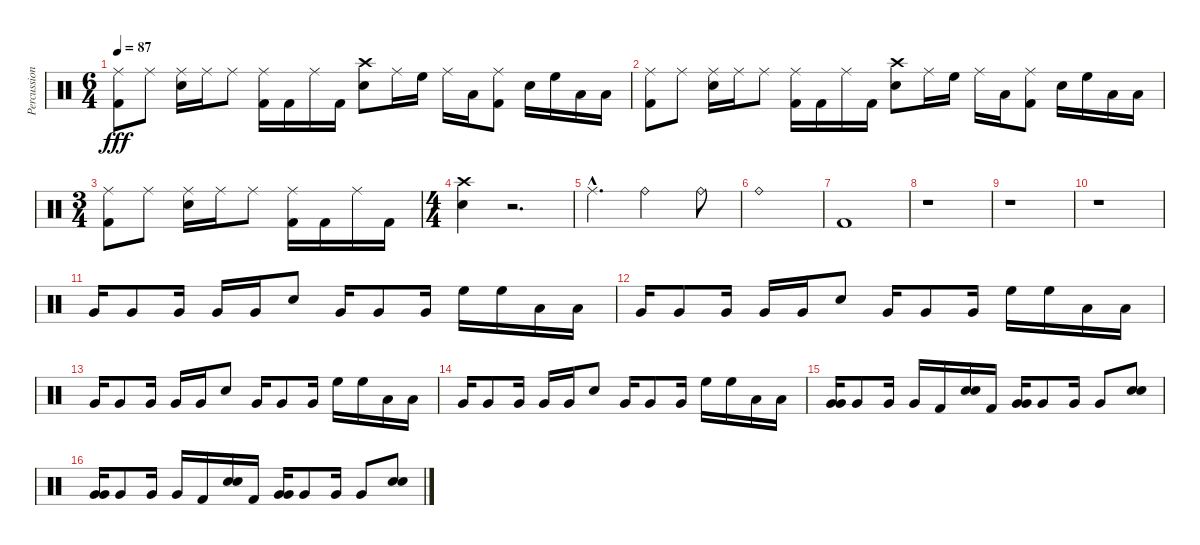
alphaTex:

\track ("Percussions" "Percussion") {instrument percussion}
\staff {score}
\articulation defaults
\ts (6 4)
\tempo 87
\clef neutral
\ks c
("Ride (middle)" "Kick (hit) 2").8{dy fff} "Ride (middle)".8 ("Electric Snare (hit)" "Ride (middle)").16 "Ride (middle)".16 "Ride (middle)".8 ("Ride (middle)" "Kick (hit) 2").16 "Kick (hit) 2".16 "Ride (middle)".16 "Kick (hit) 2".16 ("Electric Snare (hit)" "Crash high (hit)").8 "Ride (middle)".16 "High Floor Tom (hit)".16 "Ride (middle)".16 "Low Tom (hit)".16 ("Ride (middle)" "Kick (hit) 2").8 "Electric Snare (hit)".16 "High Floor Tom (hit)".16 "Low Tom (hit)".16 "Low Tom (hit)".16 |
("Ride (middle)" "Kick (hit) 2").8 "Ride (middle)".8 ("Electric Snare (hit)" "Ride (middle)").16 "Ride (middle)".16 "Ride (middle)".8 ("Ride (middle)" "Kick (hit) 2").16 "Kick (hit) 2".16 "Ride (middle)".16 "Kick (hit) 2".16 ("Electric Snare (hit)" "Crash high (hit)").8 "Ride (middle)".16 "High Floor Tom (hit)".16 "Ride (middle)".16 "Low Tom (hit)".16 ("Ride (middle)" "Kick (hit) 2").8 "Electric Snare (hit)".16 "High Floor Tom (hit)".16 "Low Tom (hit)".16 "Low Tom (hit)".16 |
\ts (3 4)
("Ride (middle)" "Kick (hit) 2").8 "Ride (middle)".8 ("Electric Snare (hit)" "Ride (middle)").16 "Ride (middle)".16 "Ride (middle)".8 ("Ride (middle)" "Kick (hit) 2").16 "Kick (hit) 2".16 "Ride (middle)".16 "Kick (hit) 2".16 |
\ts (4 4)
("Electric Snare (hit)" "Crash high (hit)").4 r.2{d} |
"Ride (middle)"{hac}.4{d} "Ride (bell)".2 "Ride (bell)".8 |
"Ride (bell)".1 |
"Kick (hit) 2".1 |
r.1 |
r.1 |
r.1 |
"Very Low Tom (hit)".16 "Very Low Tom (hit)".8 "Very Low Tom (hit)".16 "Very Low Tom (hit)".16 "Very Low Tom (hit)".16 "Electric Snare (hit)".8 "Very Low Tom (hit)".16 "Very Low Tom (hit)".8 "Very Low Tom (hit)".16 "High Floor Tom (hit)".16 "High Floor Tom (hit)".16 "Low Tom (hit)".16 "Low Tom (hit)".16 |
"Very Low Tom (hit)".16 "Very Low Tom (hit)".8 "Very Low Tom (hit)".16 "Very Low Tom (hit)".16 "Very Low Tom (hit)".16 "Electric Snare (hit)".8 "Very Low Tom (hit)".16 "Very Low Tom (hit)".8 "Very Low Tom (hit)".16 "High Floor Tom (hit)".16 "High Floor Tom (hit)".16 "Low Tom (hit)".16 "Low Tom (hit)".16 |
"Very Low Tom (hit)".16 "Very Low Tom (hit)".8 "Very Low Tom (hit)".16 "Very Low Tom (hit)".16 "Very Low Tom (hit)".16 "Electric Snare (hit)".8 "Very Low Tom (hit)".16 "Very Low Tom (hit)".8 "Very Low Tom (hit)".16 "High Floor Tom (hit)".16 "High Floor Tom (hit)".16 "Low Tom (hit)".16 "Low Tom (hit)".16 |
"Very Low Tom (hit)".16 "Very Low Tom (hit)".8 "Very Low Tom (hit)".16 "Very Low Tom (hit)".16 "Very Low Tom (hit)".16 "Electric Snare (hit)".8 "Very Low Tom (hit)".16 "Very Low Tom (hit)".8 "Very Low Tom (hit)".16 "High Floor Tom (hit)".16 "High Floor Tom (hit)".16 "Low Tom (hit)".16 "Low Tom (hit)".16 |
("Very Low Tom (hit)" "Very Low Tom (hit)").16 "Very Low Tom (hit)".8 "Very Low Tom (hit)".16 "Very Low Tom (hit)".16 "Kick (hit) 2".16 ("Electric Snare (hit)" "Electric Snare (hit)").16 "Kick (hit) 2".16 ("Very Low Tom (hit)" "Very Low Tom (hit)").16 "Very Low Tom (hit)".8 "Very Low Tom (hit)".16 "Very Low Tom (hit)".8 ("Electric Snare (hit)" "Electric Snare (hit)").8 |
("Very Low Tom (hit)" "Very Low Tom (hit)").16 "Very Low Tom (hit)".8 "Very Low Tom (hit)".16 "Very Low Tom (hit)".16 "Kick (hit) 2".16 ("Electric Snare (hit)" "Electric Snare (hit)").16 "Kick (hit) 2".16 ("Very Low Tom (hit)" "Very Low Tom (hit)").16 "Very Low Tom (hit)".8 "Very Low Tom (hit)".16 "Very Low Tom (hit)".8 ("Electric Snare (hit)" "Electric Snare (hit)").8
